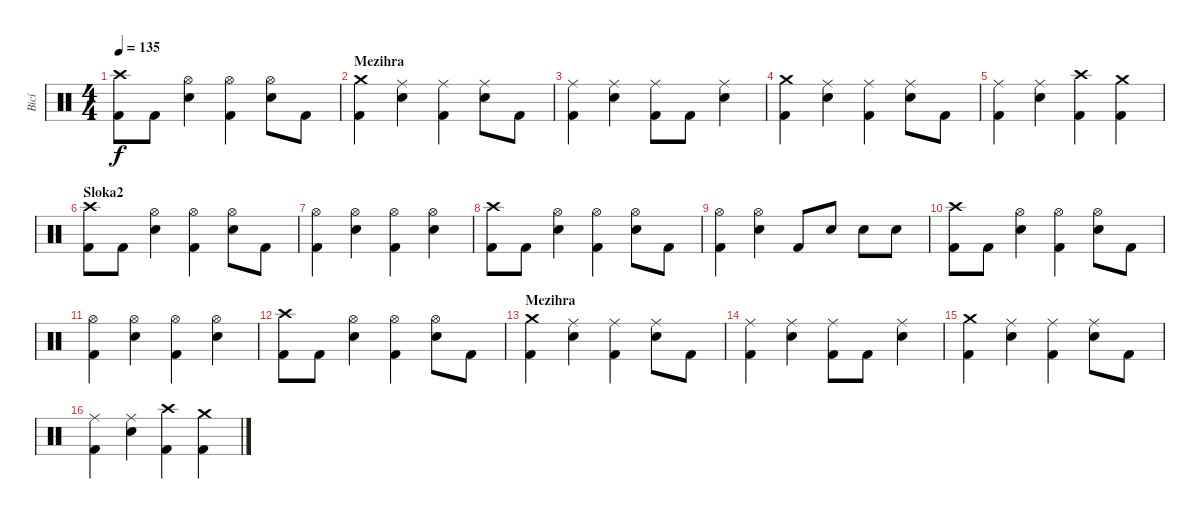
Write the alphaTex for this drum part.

\track ("Bicí" "Bicí") {instrument percussion}
\staff {score}
\articulation defaults
\ts (4 4)
\tempo 135
\clef neutral
\ks c
("Crash high (hit)" "Kick (hit) 2").8{dy f} "Kick (hit) 2".8 ("Hi-Hat (open)" "Snare (hit) 2").4 ("Hi-Hat (open)" "Kick (hit) 2").4 ("Hi-Hat (open)" "Snare (hit) 2").8 "Kick (hit) 2".8 |
\section ("" "Mezihra")
("Crash medium (hit)" "Kick (hit) 2").4 ("Ride (middle)" "Snare (hit) 2").4 ("Ride (middle)" "Kick (hit) 2").4 ("Ride (middle)" "Snare (hit) 2").8 "Kick (hit) 2".8 |
("Ride (middle)" "Kick (hit) 2").4 ("Ride (middle)" "Snare (hit) 2").4 ("Ride (middle)" "Kick (hit) 2").8 "Kick (hit) 2".8 ("Ride (middle)" "Snare (hit) 2").4 |
("Crash medium (hit)" "Kick (hit) 2").4 ("Ride (middle)" "Snare (hit) 2").4 ("Ride (middle)" "Kick (hit) 2").4 ("Ride (middle)" "Snare (hit) 2").8 "Kick (hit) 2".8 |
("Ride (middle)" "Kick (hit) 2").4 ("Ride (middle)" "Snare (hit) 2").4 ("Crash high (hit)" "Kick (hit) 2").4 ("Crash medium (hit)" "Kick (hit) 2").4 |
\section ("" "Sloka2")
("Crash high (hit)" "Kick (hit) 2").8 "Kick (hit) 2".8 ("Hi-Hat (open)" "Snare (hit) 2").4 ("Hi-Hat (open)" "Kick (hit) 2").4 ("Hi-Hat (open)" "Snare (hit) 2").8 "Kick (hit) 2".8 |
("Hi-Hat (open)" "Kick (hit) 2").4 ("Hi-Hat (open)" "Snare (hit) 2").4 ("Hi-Hat (open)" "Kick (hit) 2").4 ("Hi-Hat (open)" "Snare (hit) 2").4 |
("Crash high (hit)" "Kick (hit) 2").8 "Kick (hit) 2".8 ("Hi-Hat (open)" "Snare (hit) 2").4 ("Hi-Hat (open)" "Kick (hit) 2").4 ("Hi-Hat (open)" "Snare (hit) 2").8 "Kick (hit) 2".8 |
("Hi-Hat (open)" "Kick (hit) 2").4 ("Hi-Hat (open)" "Snare (hit) 2").4 "Kick (hit) 2".8 "Snare (hit) 2".8 "Snare (hit) 2".8 "Snare (hit) 2".8 |
("Crash high (hit)" "Kick (hit) 2").8 "Kick (hit) 2".8 ("Hi-Hat (open)" "Snare (hit) 2").4 ("Hi-Hat (open)" "Kick (hit) 2").4 ("Hi-Hat (open)" "Snare (hit) 2").8 "Kick (hit) 2".8 |
("Hi-Hat (open)" "Kick (hit) 2").4 ("Hi-Hat (open)" "Snare (hit) 2").4 ("Hi-Hat (open)" "Kick (hit) 2").4 ("Hi-Hat (open)" "Snare (hit) 2").4 |
("Crash high (hit)" "Kick (hit) 2").8 "Kick (hit) 2".8 ("Hi-Hat (open)" "Snare (hit) 2").4 ("Hi-Hat (open)" "Kick (hit) 2").4 ("Hi-Hat (open)" "Snare (hit) 2").8 "Kick (hit) 2".8 |
\section ("" "Mezihra")
("Crash medium (hit)" "Kick (hit) 2").4 ("Ride (middle)" "Snare (hit) 2").4 ("Ride (middle)" "Kick (hit) 2").4 ("Ride (middle)" "Snare (hit) 2").8 "Kick (hit) 2".8 |
("Ride (middle)" "Kick (hit) 2").4 ("Ride (middle)" "Snare (hit) 2").4 ("Ride (middle)" "Kick (hit) 2").8 "Kick (hit) 2".8 ("Ride (middle)" "Snare (hit) 2").4 |
("Crash medium (hit)" "Kick (hit) 2").4 ("Ride (middle)" "Snare (hit) 2").4 ("Ride (middle)" "Kick (hit) 2").4 ("Ride (middle)" "Snare (hit) 2").8 "Kick (hit) 2".8 |
("Ride (middle)" "Kick (hit) 2").4 ("Ride (middle)" "Snare (hit) 2").4 ("Crash high (hit)" "Kick (hit) 2").4 ("Crash medium (hit)" "Kick (hit) 2").4
